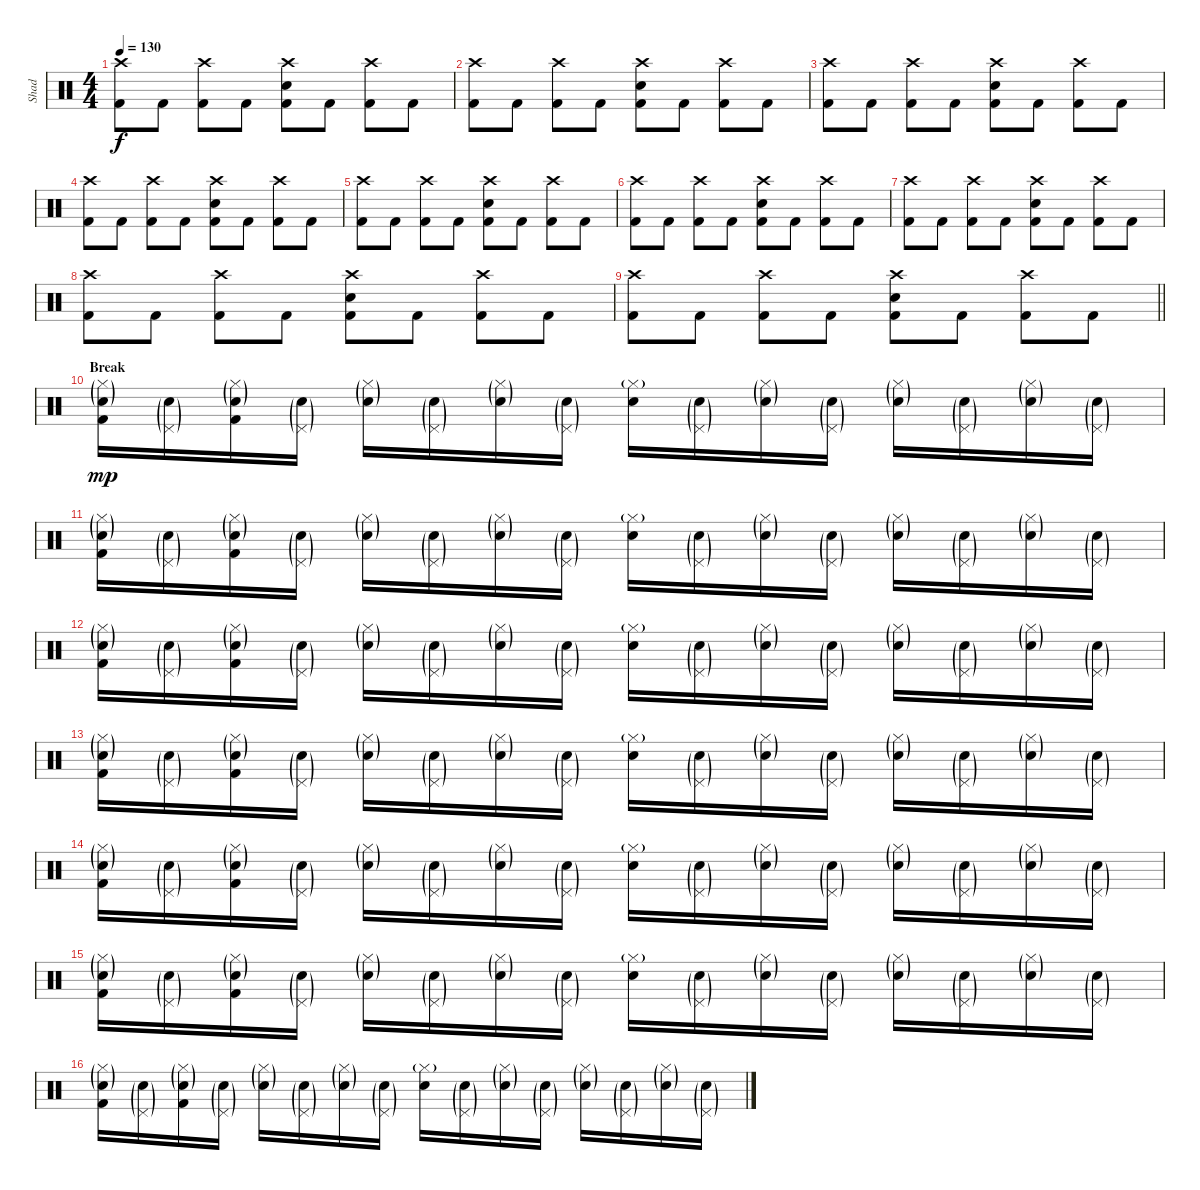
\track ("Shad" "Shad") {instrument percussion}
\staff {score}
\articulation defaults
\ts (4 4)
\tempo 130
\clef neutral
\ks c
("Crash high (hit)" "Kick (hit) 2").8{dy f} "Kick (hit) 2".8 ("Crash high (hit)" "Kick (hit) 2").8 "Kick (hit) 2".8 ("Crash high (hit)" "Electric Snare (hit)" "Kick (hit) 2").8 "Kick (hit) 2".8 ("Crash high (hit)" "Kick (hit) 2").8 "Kick (hit) 2".8 |
("Crash high (hit)" "Kick (hit) 2").8 "Kick (hit) 2".8 ("Crash high (hit)" "Kick (hit) 2").8 "Kick (hit) 2".8 ("Crash high (hit)" "Electric Snare (hit)" "Kick (hit) 2").8 "Kick (hit) 2".8 ("Crash high (hit)" "Kick (hit) 2").8 "Kick (hit) 2".8 |
("Crash high (hit)" "Kick (hit) 2").8 "Kick (hit) 2".8 ("Crash high (hit)" "Kick (hit) 2").8 "Kick (hit) 2".8 ("Crash high (hit)" "Electric Snare (hit)" "Kick (hit) 2").8 "Kick (hit) 2".8 ("Crash high (hit)" "Kick (hit) 2").8 "Kick (hit) 2".8 |
("Crash high (hit)" "Kick (hit) 2").8 "Kick (hit) 2".8 ("Crash high (hit)" "Kick (hit) 2").8 "Kick (hit) 2".8 ("Crash high (hit)" "Electric Snare (hit)" "Kick (hit) 2").8 "Kick (hit) 2".8 ("Crash high (hit)" "Kick (hit) 2").8 "Kick (hit) 2".8 |
("Crash high (hit)" "Kick (hit) 2").8 "Kick (hit) 2".8 ("Crash high (hit)" "Kick (hit) 2").8 "Kick (hit) 2".8 ("Crash high (hit)" "Electric Snare (hit)" "Kick (hit) 2").8 "Kick (hit) 2".8 ("Crash high (hit)" "Kick (hit) 2").8 "Kick (hit) 2".8 |
("Crash high (hit)" "Kick (hit) 2").8 "Kick (hit) 2".8 ("Crash high (hit)" "Kick (hit) 2").8 "Kick (hit) 2".8 ("Crash high (hit)" "Electric Snare (hit)" "Kick (hit) 2").8 "Kick (hit) 2".8 ("Crash high (hit)" "Kick (hit) 2").8 "Kick (hit) 2".8 |
("Crash high (hit)" "Kick (hit) 2").8 "Kick (hit) 2".8 ("Crash high (hit)" "Kick (hit) 2").8 "Kick (hit) 2".8 ("Crash high (hit)" "Electric Snare (hit)" "Kick (hit) 2").8 "Kick (hit) 2".8 ("Crash high (hit)" "Kick (hit) 2").8 "Kick (hit) 2".8 |
("Crash high (hit)" "Kick (hit) 2").8 "Kick (hit) 2".8 ("Crash high (hit)" "Kick (hit) 2").8 "Kick (hit) 2".8 ("Crash high (hit)" "Electric Snare (hit)" "Kick (hit) 2").8 "Kick (hit) 2".8 ("Crash high (hit)" "Kick (hit) 2").8 "Kick (hit) 2".8 |
\barLineRight lightlight
("Crash high (hit)" "Kick (hit) 2").8 "Kick (hit) 2".8 ("Crash high (hit)" "Kick (hit) 2").8 "Kick (hit) 2".8 ("Crash high (hit)" "Electric Snare (hit)" "Kick (hit) 2").8 "Kick (hit) 2".8 ("Crash high (hit)" "Kick (hit) 2").8 "Kick (hit) 2".8 |
\section ("" "Break")
("Hi-Hat (closed)"{g} "Electric Snare (hit)"{g} "Kick (hit) 2").16{dy mp} ("Pedal Hi-Hat (hit)"{g} "Electric Snare (hit)"{g}).16 ("Hi-Hat (closed)"{g} "Electric Snare (hit)"{g} "Kick (hit) 2").16 ("Pedal Hi-Hat (hit)"{g} "Electric Snare (hit)"{g}).16 ("Hi-Hat (closed)"{g} "Electric Snare (hit)"{g}).16 ("Pedal Hi-Hat (hit)"{g} "Electric Snare (hit)"{g}).16 ("Hi-Hat (closed)"{g} "Electric Snare (hit)"{g}).16 ("Pedal Hi-Hat (hit)"{g} "Electric Snare (hit)"{g}).16 ("Hi-Hat (closed)"{g} "Electric Snare (hit)").16 ("Pedal Hi-Hat (hit)"{g} "Electric Snare (hit)"{g}).16 ("Hi-Hat (closed)"{g} "Electric Snare (hit)"{g}).16 ("Pedal Hi-Hat (hit)"{g} "Electric Snare (hit)"{g}).16 ("Hi-Hat (closed)"{g} "Electric Snare (hit)"{g}).16 ("Pedal Hi-Hat (hit)"{g} "Electric Snare (hit)"{g}).16 ("Hi-Hat (closed)"{g} "Electric Snare (hit)"{g}).16 ("Pedal Hi-Hat (hit)"{g} "Electric Snare (hit)"{g}).16 |
("Hi-Hat (closed)"{g} "Electric Snare (hit)"{g} "Kick (hit) 2").16 ("Pedal Hi-Hat (hit)"{g} "Electric Snare (hit)"{g}).16 ("Hi-Hat (closed)"{g} "Electric Snare (hit)"{g} "Kick (hit) 2").16 ("Pedal Hi-Hat (hit)"{g} "Electric Snare (hit)"{g}).16 ("Hi-Hat (closed)"{g} "Electric Snare (hit)"{g}).16 ("Pedal Hi-Hat (hit)"{g} "Electric Snare (hit)"{g}).16 ("Hi-Hat (closed)"{g} "Electric Snare (hit)"{g}).16 ("Pedal Hi-Hat (hit)"{g} "Electric Snare (hit)"{g}).16 ("Hi-Hat (closed)"{g} "Electric Snare (hit)").16 ("Pedal Hi-Hat (hit)"{g} "Electric Snare (hit)"{g}).16 ("Hi-Hat (closed)"{g} "Electric Snare (hit)"{g}).16 ("Pedal Hi-Hat (hit)"{g} "Electric Snare (hit)"{g}).16 ("Hi-Hat (closed)"{g} "Electric Snare (hit)"{g}).16 ("Pedal Hi-Hat (hit)"{g} "Electric Snare (hit)"{g}).16 ("Hi-Hat (closed)"{g} "Electric Snare (hit)"{g}).16 ("Pedal Hi-Hat (hit)"{g} "Electric Snare (hit)"{g}).16 |
("Hi-Hat (closed)"{g} "Electric Snare (hit)"{g} "Kick (hit) 2").16 ("Pedal Hi-Hat (hit)"{g} "Electric Snare (hit)"{g}).16 ("Hi-Hat (closed)"{g} "Electric Snare (hit)"{g} "Kick (hit) 2").16 ("Pedal Hi-Hat (hit)"{g} "Electric Snare (hit)"{g}).16 ("Hi-Hat (closed)"{g} "Electric Snare (hit)"{g}).16 ("Pedal Hi-Hat (hit)"{g} "Electric Snare (hit)"{g}).16 ("Hi-Hat (closed)"{g} "Electric Snare (hit)"{g}).16 ("Pedal Hi-Hat (hit)"{g} "Electric Snare (hit)"{g}).16 ("Hi-Hat (closed)"{g} "Electric Snare (hit)").16 ("Pedal Hi-Hat (hit)"{g} "Electric Snare (hit)"{g}).16 ("Hi-Hat (closed)"{g} "Electric Snare (hit)"{g}).16 ("Pedal Hi-Hat (hit)"{g} "Electric Snare (hit)"{g}).16 ("Hi-Hat (closed)"{g} "Electric Snare (hit)"{g}).16 ("Pedal Hi-Hat (hit)"{g} "Electric Snare (hit)"{g}).16 ("Hi-Hat (closed)"{g} "Electric Snare (hit)"{g}).16 ("Pedal Hi-Hat (hit)"{g} "Electric Snare (hit)"{g}).16 |
("Hi-Hat (closed)"{g} "Electric Snare (hit)"{g} "Kick (hit) 2").16 ("Pedal Hi-Hat (hit)"{g} "Electric Snare (hit)"{g}).16 ("Hi-Hat (closed)"{g} "Electric Snare (hit)"{g} "Kick (hit) 2").16 ("Pedal Hi-Hat (hit)"{g} "Electric Snare (hit)"{g}).16 ("Hi-Hat (closed)"{g} "Electric Snare (hit)"{g}).16 ("Pedal Hi-Hat (hit)"{g} "Electric Snare (hit)"{g}).16 ("Hi-Hat (closed)"{g} "Electric Snare (hit)"{g}).16 ("Pedal Hi-Hat (hit)"{g} "Electric Snare (hit)"{g}).16 ("Hi-Hat (closed)"{g} "Electric Snare (hit)").16 ("Pedal Hi-Hat (hit)"{g} "Electric Snare (hit)"{g}).16 ("Hi-Hat (closed)"{g} "Electric Snare (hit)"{g}).16 ("Pedal Hi-Hat (hit)"{g} "Electric Snare (hit)"{g}).16 ("Hi-Hat (closed)"{g} "Electric Snare (hit)"{g}).16 ("Pedal Hi-Hat (hit)"{g} "Electric Snare (hit)"{g}).16 ("Hi-Hat (closed)"{g} "Electric Snare (hit)"{g}).16 ("Pedal Hi-Hat (hit)"{g} "Electric Snare (hit)"{g}).16 |
("Hi-Hat (closed)"{g} "Electric Snare (hit)"{g} "Kick (hit) 2").16 ("Pedal Hi-Hat (hit)"{g} "Electric Snare (hit)"{g}).16 ("Hi-Hat (closed)"{g} "Electric Snare (hit)"{g} "Kick (hit) 2").16 ("Pedal Hi-Hat (hit)"{g} "Electric Snare (hit)"{g}).16 ("Hi-Hat (closed)"{g} "Electric Snare (hit)"{g}).16 ("Pedal Hi-Hat (hit)"{g} "Electric Snare (hit)"{g}).16 ("Hi-Hat (closed)"{g} "Electric Snare (hit)"{g}).16 ("Pedal Hi-Hat (hit)"{g} "Electric Snare (hit)"{g}).16 ("Hi-Hat (closed)"{g} "Electric Snare (hit)").16 ("Pedal Hi-Hat (hit)"{g} "Electric Snare (hit)"{g}).16 ("Hi-Hat (closed)"{g} "Electric Snare (hit)"{g}).16 ("Pedal Hi-Hat (hit)"{g} "Electric Snare (hit)"{g}).16 ("Hi-Hat (closed)"{g} "Electric Snare (hit)"{g}).16 ("Pedal Hi-Hat (hit)"{g} "Electric Snare (hit)"{g}).16 ("Hi-Hat (closed)"{g} "Electric Snare (hit)"{g}).16 ("Pedal Hi-Hat (hit)"{g} "Electric Snare (hit)"{g}).16 |
("Hi-Hat (closed)"{g} "Electric Snare (hit)"{g} "Kick (hit) 2").16 ("Pedal Hi-Hat (hit)"{g} "Electric Snare (hit)"{g}).16 ("Hi-Hat (closed)"{g} "Electric Snare (hit)"{g} "Kick (hit) 2").16 ("Pedal Hi-Hat (hit)"{g} "Electric Snare (hit)"{g}).16 ("Hi-Hat (closed)"{g} "Electric Snare (hit)"{g}).16 ("Pedal Hi-Hat (hit)"{g} "Electric Snare (hit)"{g}).16 ("Hi-Hat (closed)"{g} "Electric Snare (hit)"{g}).16 ("Pedal Hi-Hat (hit)"{g} "Electric Snare (hit)"{g}).16 ("Hi-Hat (closed)"{g} "Electric Snare (hit)").16 ("Pedal Hi-Hat (hit)"{g} "Electric Snare (hit)"{g}).16 ("Hi-Hat (closed)"{g} "Electric Snare (hit)"{g}).16 ("Pedal Hi-Hat (hit)"{g} "Electric Snare (hit)"{g}).16 ("Hi-Hat (closed)"{g} "Electric Snare (hit)"{g}).16 ("Pedal Hi-Hat (hit)"{g} "Electric Snare (hit)"{g}).16 ("Hi-Hat (closed)"{g} "Electric Snare (hit)"{g}).16 ("Pedal Hi-Hat (hit)"{g} "Electric Snare (hit)"{g}).16 |
("Hi-Hat (closed)"{g} "Electric Snare (hit)"{g} "Kick (hit) 2").16 ("Pedal Hi-Hat (hit)"{g} "Electric Snare (hit)"{g}).16 ("Hi-Hat (closed)"{g} "Electric Snare (hit)"{g} "Kick (hit) 2").16 ("Pedal Hi-Hat (hit)"{g} "Electric Snare (hit)"{g}).16 ("Hi-Hat (closed)"{g} "Electric Snare (hit)"{g}).16 ("Pedal Hi-Hat (hit)"{g} "Electric Snare (hit)"{g}).16 ("Hi-Hat (closed)"{g} "Electric Snare (hit)"{g}).16 ("Pedal Hi-Hat (hit)"{g} "Electric Snare (hit)"{g}).16 ("Hi-Hat (closed)"{g} "Electric Snare (hit)").16 ("Pedal Hi-Hat (hit)"{g} "Electric Snare (hit)"{g}).16 ("Hi-Hat (closed)"{g} "Electric Snare (hit)"{g}).16 ("Pedal Hi-Hat (hit)"{g} "Electric Snare (hit)"{g}).16 ("Hi-Hat (closed)"{g} "Electric Snare (hit)"{g}).16 ("Pedal Hi-Hat (hit)"{g} "Electric Snare (hit)"{g}).16 ("Hi-Hat (closed)"{g} "Electric Snare (hit)"{g}).16 ("Pedal Hi-Hat (hit)"{g} "Electric Snare (hit)"{g}).16
